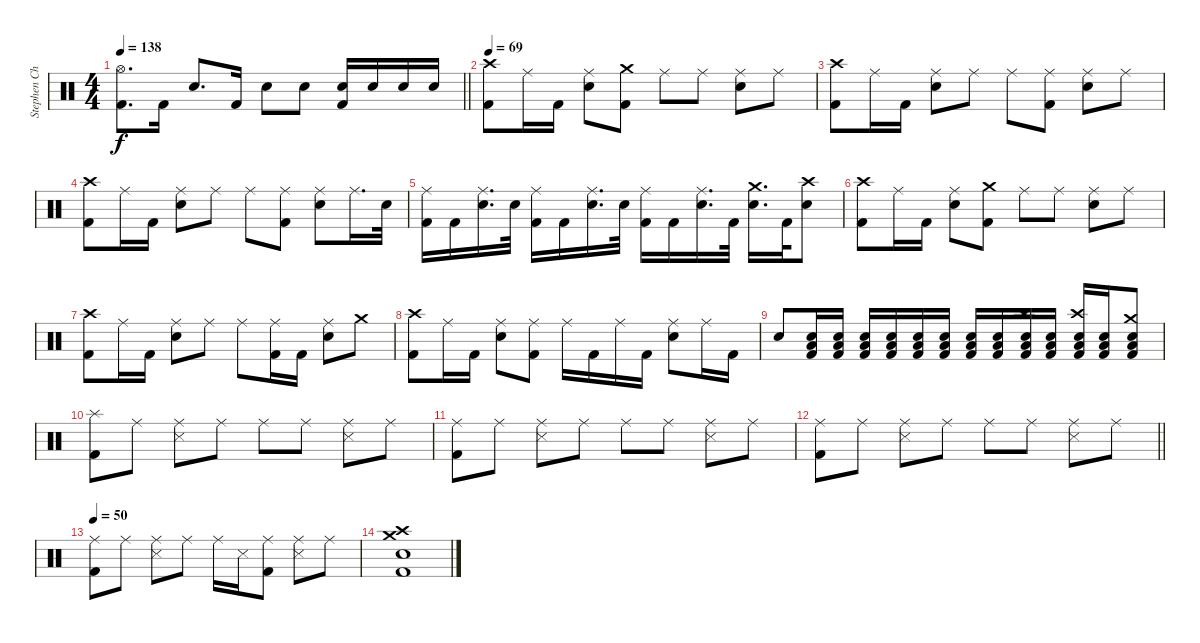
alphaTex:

\track ("Stephen Chopek" "Stephen Ch") {instrument percussion}
\staff {score}
\articulation defaults
\ts (4 4)
\tempo 138
\clef neutral
\barLineRight lightlight
\ks c
("Hi-Hat (open)" "Kick (hit) 2").8{d dy f} "Kick (hit) 2".16 "Snare (hit) 2".8{d} "Kick (hit) 2".16 "Snare (hit) 2".8 "Snare (hit) 2".8 ("Snare (hit) 2" "Kick (hit) 2").16 "Snare (hit) 2".16 "Snare (hit) 2".16 "Snare (hit) 2".16 |
\tempo 69
("Crash high (hit)" "Kick (hit) 2").8 "Ride (middle)".16 "Kick (hit) 2".16 ("Ride (middle)" "Snare (hit) 2").8 ("Crash medium (hit)" "Kick (hit) 2").8 "Ride (middle)".8 "Ride (middle)".8 ("Ride (middle)" "Snare (hit) 2").8 "Ride (middle)".8 |
("Crash high (hit)" "Kick (hit) 2").8 "Ride (middle)".16 "Kick (hit) 2".16 ("Ride (middle)" "Snare (hit) 2").8 "Ride (middle)".8 "Ride (middle)".8 ("Ride (middle)" "Kick (hit) 2").8 ("Ride (middle)" "Snare (hit) 2").8 "Ride (middle)".8 |
("Crash high (hit)" "Kick (hit) 2").8 "Ride (middle)".16 "Kick (hit) 2".16 ("Ride (middle)" "Snare (hit) 2").8 "Ride (middle)".8 "Ride (middle)".8 ("Ride (middle)" "Kick (hit) 2").8 ("Ride (middle)" "Snare (hit) 2").8 "Ride (middle)".16{d} "Snare (hit) 2".32 |
("Ride (middle)" "Kick (hit) 2").16 "Kick (hit) 2".16 ("Ride (middle)" "Snare (hit) 2").16{d} "Snare (hit) 2".32 ("Ride (middle)" "Kick (hit) 2").16 "Kick (hit) 2".16 ("Ride (middle)" "Snare (hit) 2").16{d} "Snare (hit) 2".32 ("Ride (middle)" "Kick (hit) 2").16 "Kick (hit) 2".16 ("Ride (middle)" "Snare (hit) 2").16{d} "Kick (hit) 2".32 ("Crash medium (hit)" "Snare (hit) 2").16{d} "Kick (hit) 2".32 ("Crash high (hit)" "Snare (hit) 2").8 |
("Crash high (hit)" "Kick (hit) 2").8 "Ride (middle)".16 "Kick (hit) 2".16 ("Ride (middle)" "Snare (hit) 2").8 ("Crash medium (hit)" "Kick (hit) 2").8 "Ride (middle)".8 "Ride (middle)".8 ("Ride (middle)" "Snare (hit) 2").8 "Ride (middle)".8 |
("Crash high (hit)" "Kick (hit) 2").8 "Ride (middle)".16 "Kick (hit) 2".16 ("Ride (middle)" "Snare (hit) 2").8 "Ride (middle)".8 "Ride (middle)".8 ("Ride (middle)" "Kick (hit) 2").16 "Kick (hit) 2".16 ("Ride (middle)" "Snare (hit) 2").8 "Crash medium (hit)".8 |
("Crash high (hit)" "Kick (hit) 2").8 "Ride (middle)".16 "Kick (hit) 2".16 ("Ride (middle)" "Snare (hit) 2").8 ("Ride (middle)" "Kick (hit) 2").8 "Ride (middle)".16 "Kick (hit) 2".16 "Ride (middle)".16 "Kick (hit) 2".16 ("Ride (middle)" "Snare (hit) 2").8 "Ride (middle)".16 "Kick (hit) 2".16 |
"Snare (hit) 2".8 ("Low Floor Tom (hit)" "Snare (hit) 2" "Kick (hit) 2").16{volume 1} ("Low Floor Tom (hit)" "Snare (hit) 2" "Kick (hit) 2").16 ("Low Floor Tom (hit)" "Snare (hit) 2" "Kick (hit) 2").16{volume 8} ("Low Floor Tom (hit)" "Snare (hit) 2" "Kick (hit) 2").16 ("Low Floor Tom (hit)" "Snare (hit) 2" "Kick (hit) 2").16 ("Low Floor Tom (hit)" "Snare (hit) 2" "Kick (hit) 2").16 ("Low Floor Tom (hit)" "Snare (hit) 2" "Kick (hit) 2").16 ("Low Floor Tom (hit)" "Snare (hit) 2" "Kick (hit) 2").16 ("Crash high (hit)" "Low Floor Tom (hit)" "Snare (hit) 2" "Kick (hit) 2").16 ("Low Floor Tom (hit)" "Snare (hit) 2" "Kick (hit) 2").16 ("Crash high (hit)" "Low Floor Tom (hit)" "Snare (hit) 2" "Kick (hit) 2").16 ("Low Floor Tom (hit)" "Snare (hit) 2" "Kick (hit) 2").16 ("Crash medium (hit)" "Low Floor Tom (hit)" "Snare (hit) 2" "Kick (hit) 2").8 |
("Splash (hit)" "Kick (hit) 2").8 "Ride (middle)".8{volume 4} ("Ride (middle)" "Snare (side stick) 3").8 "Ride (middle)".8 "Ride (middle)".8 "Ride (middle)".8 ("Ride (middle)" "Snare (side stick) 3").8 "Ride (middle)".8 |
("Ride (middle)" "Kick (hit) 2").8 "Ride (middle)".8 ("Ride (middle)" "Snare (side stick) 3").8 "Ride (middle)".8 "Ride (middle)".8 "Ride (middle)".8 ("Ride (middle)" "Snare (side stick) 3").8 "Ride (middle)".8 |
\barLineRight lightlight
("Ride (middle)" "Kick (hit) 2").8 "Ride (middle)".8 ("Ride (middle)" "Snare (side stick) 3").8 "Ride (middle)".8 "Ride (middle)".8 "Ride (middle)".8 ("Ride (middle)" "Snare (side stick) 3").8 "Ride (middle)".8 |
\tempo 50
("Ride (middle)" "Kick (hit) 2").8 "Ride (middle)".8 ("Ride (middle)" "Snare (side stick) 3").8 "Ride (middle)".8 "Ride (middle)".16 "Snare (side stick) 3".16 ("Ride (middle)" "Kick (hit) 2").8 ("Ride (middle)" "Snare (side stick) 3").8 "Ride (middle)".8 |
("Crash high (hit)" "Crash medium (hit)" "Snare (hit) 2" "Kick (hit) 2").1
